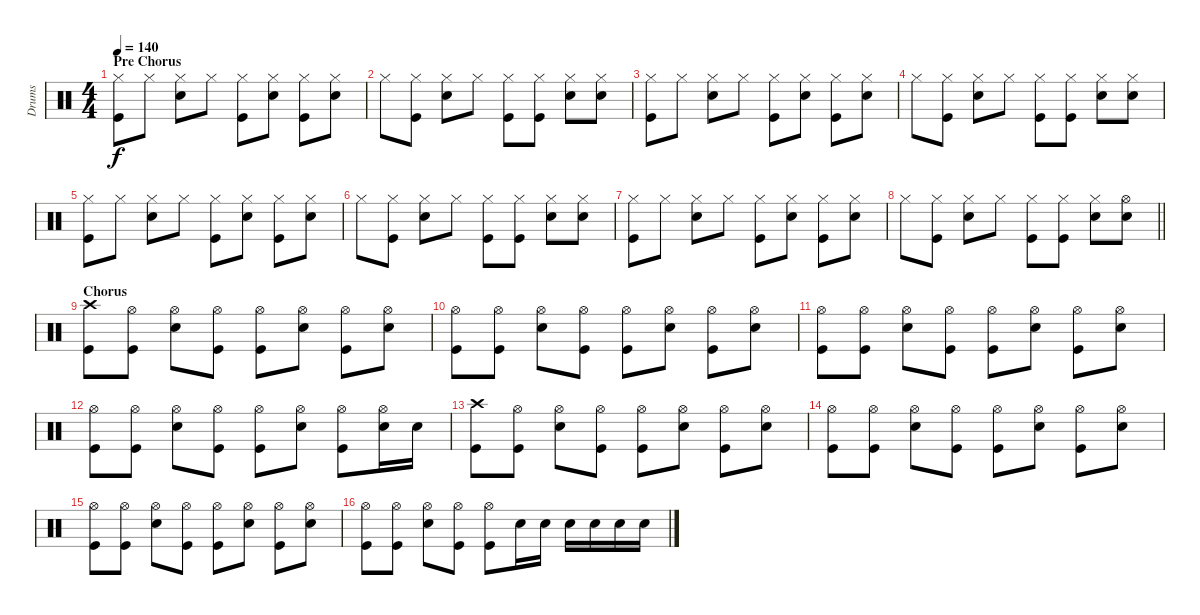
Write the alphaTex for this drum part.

\track ("Drums" "Drums") {instrument percussion}
\staff {score}
\articulation defaults
\ts (4 4)
\section ("" "Pre Chorus")
\tempo 140
\clef neutral
\ks c
("Hi-Hat (closed)" "Kick (hit)").8{dy f} "Hi-Hat (closed)".8 ("Hi-Hat (closed)" "Snare (hit) 2").8 "Hi-Hat (closed)".8 ("Hi-Hat (closed)" "Kick (hit)").8 ("Hi-Hat (closed)" "Snare (hit) 2").8 ("Hi-Hat (closed)" "Kick (hit)").8 ("Hi-Hat (closed)" "Snare (hit) 2").8 |
"Hi-Hat (closed)".8 ("Hi-Hat (closed)" "Kick (hit)").8 ("Hi-Hat (closed)" "Snare (hit) 2").8 "Hi-Hat (closed)".8 ("Hi-Hat (closed)" "Kick (hit)").8 ("Hi-Hat (closed)" "Kick (hit)").8 ("Hi-Hat (closed)" "Snare (hit) 2").8 ("Hi-Hat (closed)" "Snare (hit) 2").8 |
("Hi-Hat (closed)" "Kick (hit)").8 "Hi-Hat (closed)".8 ("Hi-Hat (closed)" "Snare (hit) 2").8 "Hi-Hat (closed)".8 ("Hi-Hat (closed)" "Kick (hit)").8 ("Hi-Hat (closed)" "Snare (hit) 2").8 ("Hi-Hat (closed)" "Kick (hit)").8 ("Hi-Hat (closed)" "Snare (hit) 2").8 |
"Hi-Hat (closed)".8 ("Hi-Hat (closed)" "Kick (hit)").8 ("Hi-Hat (closed)" "Snare (hit) 2").8 "Hi-Hat (closed)".8 ("Hi-Hat (closed)" "Kick (hit)").8 ("Hi-Hat (closed)" "Kick (hit)").8 ("Hi-Hat (closed)" "Snare (hit) 2").8 ("Hi-Hat (closed)" "Snare (hit) 2").8 |
("Hi-Hat (closed)" "Kick (hit)").8 "Hi-Hat (closed)".8 ("Hi-Hat (closed)" "Snare (hit) 2").8 "Hi-Hat (closed)".8 ("Hi-Hat (closed)" "Kick (hit)").8 ("Hi-Hat (closed)" "Snare (hit) 2").8 ("Hi-Hat (closed)" "Kick (hit)").8 ("Hi-Hat (closed)" "Snare (hit) 2").8 |
"Hi-Hat (closed)".8 ("Hi-Hat (closed)" "Kick (hit)").8 ("Hi-Hat (closed)" "Snare (hit) 2").8 "Hi-Hat (closed)".8 ("Hi-Hat (closed)" "Kick (hit)").8 ("Hi-Hat (closed)" "Kick (hit)").8 ("Hi-Hat (closed)" "Snare (hit) 2").8 ("Hi-Hat (closed)" "Snare (hit) 2").8 |
("Hi-Hat (closed)" "Kick (hit)").8 "Hi-Hat (closed)".8 ("Hi-Hat (closed)" "Snare (hit) 2").8 "Hi-Hat (closed)".8 ("Hi-Hat (closed)" "Kick (hit)").8 ("Hi-Hat (closed)" "Snare (hit) 2").8 ("Hi-Hat (closed)" "Kick (hit)").8 ("Hi-Hat (closed)" "Snare (hit) 2").8 |
\barLineRight lightlight "Hi-Hat (closed)".8
("Hi-Hat (closed)" "Kick (hit)").8 ("Hi-Hat (closed)" "Snare (hit) 2").8 "Hi-Hat (closed)".8 ("Hi-Hat (closed)" "Kick (hit)").8 ("Hi-Hat (closed)" "Kick (hit)").8 ("Hi-Hat (closed)" "Snare (hit) 2").8 ("Hi-Hat (open)" "Snare (hit) 2").8 |
\section ("" "Chorus")
("Crash high (hit)" "Kick (hit)").8{volume 12} ("Hi-Hat (open)" "Kick (hit)").8 ("Hi-Hat (open)" "Snare (hit) 2").8 ("Hi-Hat (open)" "Kick (hit)").8 ("Hi-Hat (open)" "Kick (hit)").8 ("Hi-Hat (open)" "Snare (hit) 2").8 ("Hi-Hat (open)" "Kick (hit)").8 ("Hi-Hat (open)" "Snare (hit) 2").8 |
("Hi-Hat (open)" "Kick (hit)").8 ("Hi-Hat (open)" "Kick (hit)").8 ("Hi-Hat (open)" "Snare (hit) 2").8 ("Hi-Hat (open)" "Kick (hit)").8 ("Hi-Hat (open)" "Kick (hit)").8 ("Hi-Hat (open)" "Snare (hit) 2").8 ("Hi-Hat (open)" "Kick (hit)").8 ("Hi-Hat (open)" "Snare (hit) 2").8 |
("Hi-Hat (open)" "Kick (hit)").8 ("Hi-Hat (open)" "Kick (hit)").8 ("Hi-Hat (open)" "Snare (hit) 2").8 ("Hi-Hat (open)" "Kick (hit)").8 ("Hi-Hat (open)" "Kick (hit)").8 ("Hi-Hat (open)" "Snare (hit) 2").8 ("Hi-Hat (open)" "Kick (hit)").8 ("Hi-Hat (open)" "Snare (hit) 2").8 |
("Hi-Hat (open)" "Kick (hit)").8 ("Hi-Hat (open)" "Kick (hit)").8 ("Hi-Hat (open)" "Snare (hit) 2").8 ("Hi-Hat (open)" "Kick (hit)").8 ("Hi-Hat (open)" "Kick (hit)").8 ("Hi-Hat (open)" "Snare (hit) 2").8 ("Hi-Hat (open)" "Kick (hit)").8 ("Hi-Hat (open)" "Snare (hit) 2").16 "Snare (hit) 2".16 |
("Crash high (hit)" "Kick (hit)").8 ("Hi-Hat (open)" "Kick (hit)").8 ("Hi-Hat (open)" "Snare (hit) 2").8 ("Hi-Hat (open)" "Kick (hit)").8 ("Hi-Hat (open)" "Kick (hit)").8 ("Hi-Hat (open)" "Snare (hit) 2").8 ("Hi-Hat (open)" "Kick (hit)").8 ("Hi-Hat (open)" "Snare (hit) 2").8 |
("Hi-Hat (open)" "Kick (hit)").8 ("Hi-Hat (open)" "Kick (hit)").8 ("Hi-Hat (open)" "Snare (hit) 2").8 ("Hi-Hat (open)" "Kick (hit)").8 ("Hi-Hat (open)" "Kick (hit)").8 ("Hi-Hat (open)" "Snare (hit) 2").8 ("Hi-Hat (open)" "Kick (hit)").8 ("Hi-Hat (open)" "Snare (hit) 2").8 |
("Hi-Hat (open)" "Kick (hit)").8 ("Hi-Hat (open)" "Kick (hit)").8 ("Hi-Hat (open)" "Snare (hit) 2").8 ("Hi-Hat (open)" "Kick (hit)").8 ("Hi-Hat (open)" "Kick (hit)").8 ("Hi-Hat (open)" "Snare (hit) 2").8 ("Hi-Hat (open)" "Kick (hit)").8 ("Hi-Hat (open)" "Snare (hit) 2").8 |
("Hi-Hat (open)" "Kick (hit)").8 ("Hi-Hat (open)" "Kick (hit)").8 ("Hi-Hat (open)" "Snare (hit) 2").8 ("Hi-Hat (open)" "Kick (hit)").8 ("Hi-Hat (open)" "Kick (hit)").8 "Snare (hit) 2".16 "Snare (hit) 2".16 "Snare (hit) 2".16 "Snare (hit) 2".16 "Snare (hit) 2".16 "Snare (hit) 2".16
